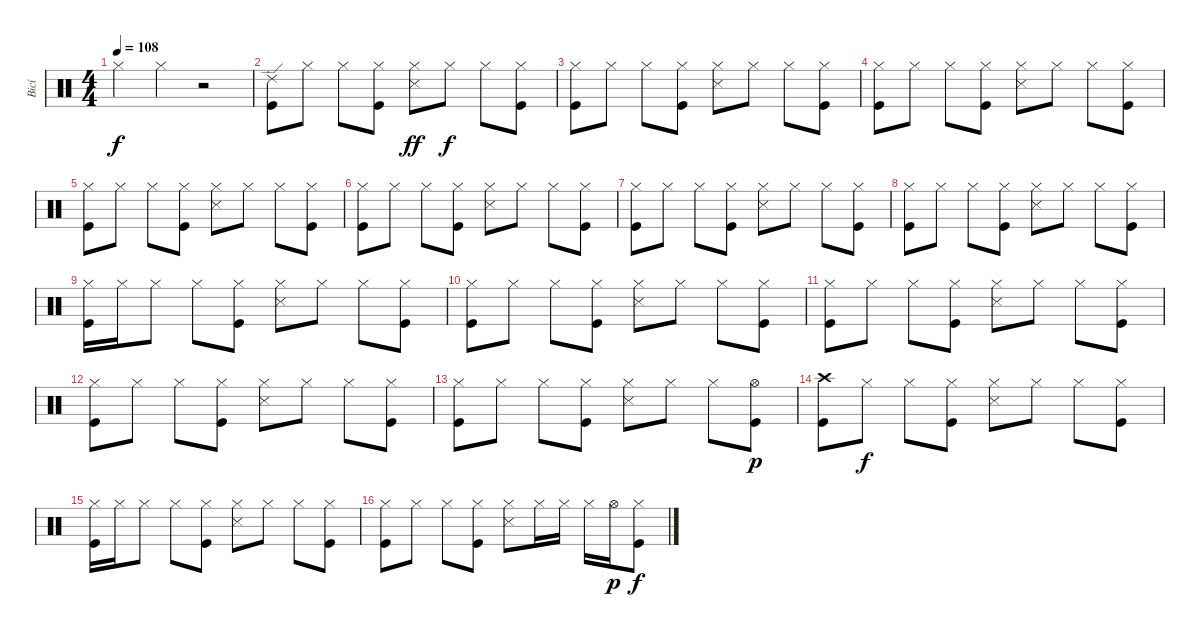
\track ("Bicí" "Bicí") {instrument percussion}
\staff {score}
\articulation defaults
\ts (4 4)
\tempo 108
\clef neutral
\ks c "Hi-Hat (closed)".4{dy f} "Hi-Hat (closed)".4
r.2 |
("Ride (edge) 2" "Kick (hit)").8 "Hi-Hat (closed)".8 "Hi-Hat (closed)".8 ("Hi-Hat (closed)" "Kick (hit)").8 ("Hi-Hat (closed)" "Snare (side stick) 3").8{dy ff} "Hi-Hat (closed)".8{dy f} "Hi-Hat (closed)".8 ("Hi-Hat (closed)" "Kick (hit)").8 |
("Hi-Hat (closed)" "Kick (hit)").8 "Hi-Hat (closed)".8 "Hi-Hat (closed)".8 ("Hi-Hat (closed)" "Kick (hit)").8 ("Hi-Hat (closed)" "Snare (side stick) 3").8 "Hi-Hat (closed)".8 "Hi-Hat (closed)".8 ("Hi-Hat (closed)" "Kick (hit)").8 |
("Hi-Hat (closed)" "Kick (hit)").8 "Hi-Hat (closed)".8 "Hi-Hat (closed)".8 ("Hi-Hat (closed)" "Kick (hit)").8 ("Hi-Hat (closed)" "Snare (side stick) 3").8 "Hi-Hat (closed)".8 "Hi-Hat (closed)".8 ("Hi-Hat (closed)" "Kick (hit)").8 |
("Hi-Hat (closed)" "Kick (hit)").8 "Hi-Hat (closed)".8 "Hi-Hat (closed)".8 ("Hi-Hat (closed)" "Kick (hit)").8 ("Hi-Hat (closed)" "Snare (side stick) 3").8 "Hi-Hat (closed)".8 "Hi-Hat (closed)".8 ("Hi-Hat (closed)" "Kick (hit)").8 |
("Hi-Hat (closed)" "Kick (hit)").8 "Hi-Hat (closed)".8 "Hi-Hat (closed)".8 ("Hi-Hat (closed)" "Kick (hit)").8 ("Hi-Hat (closed)" "Snare (side stick) 3").8 "Hi-Hat (closed)".8 "Hi-Hat (closed)".8 ("Hi-Hat (closed)" "Kick (hit)").8 |
("Hi-Hat (closed)" "Kick (hit)").8 "Hi-Hat (closed)".8 "Hi-Hat (closed)".8 ("Hi-Hat (closed)" "Kick (hit)").8 ("Hi-Hat (closed)" "Snare (side stick) 3").8 "Hi-Hat (closed)".8 "Hi-Hat (closed)".8 ("Hi-Hat (closed)" "Kick (hit)").8 |
("Hi-Hat (closed)" "Kick (hit)").8 "Hi-Hat (closed)".8 "Hi-Hat (closed)".8 ("Hi-Hat (closed)" "Kick (hit)").8 ("Hi-Hat (closed)" "Snare (side stick) 3").8 "Hi-Hat (closed)".8 "Hi-Hat (closed)".8 ("Hi-Hat (closed)" "Kick (hit)").8 |
("Hi-Hat (closed)" "Kick (hit)").16 "Hi-Hat (closed)".16 "Hi-Hat (closed)".8 "Hi-Hat (closed)".8 ("Hi-Hat (closed)" "Kick (hit)").8 ("Hi-Hat (closed)" "Snare (side stick) 3").8 "Hi-Hat (closed)".8 "Hi-Hat (closed)".8 ("Hi-Hat (closed)" "Kick (hit)").8 |
("Hi-Hat (closed)" "Kick (hit)").8 "Hi-Hat (closed)".8 "Hi-Hat (closed)".8 ("Hi-Hat (closed)" "Kick (hit)").8 ("Hi-Hat (closed)" "Snare (side stick) 3").8 "Hi-Hat (closed)".8 "Hi-Hat (closed)".8 ("Hi-Hat (closed)" "Kick (hit)").8 |
("Hi-Hat (closed)" "Kick (hit)").8 "Hi-Hat (closed)".8 "Hi-Hat (closed)".8 ("Hi-Hat (closed)" "Kick (hit)").8 ("Hi-Hat (closed)" "Snare (side stick) 3").8 "Hi-Hat (closed)".8 "Hi-Hat (closed)".8 ("Hi-Hat (closed)" "Kick (hit)").8 |
("Hi-Hat (closed)" "Kick (hit)").8 "Hi-Hat (closed)".8 "Hi-Hat (closed)".8 ("Hi-Hat (closed)" "Kick (hit)").8 ("Hi-Hat (closed)" "Snare (side stick) 3").8 "Hi-Hat (closed)".8 "Hi-Hat (closed)".8 ("Hi-Hat (closed)" "Kick (hit)").8 |
("Hi-Hat (closed)" "Kick (hit)").8 "Hi-Hat (closed)".8 "Hi-Hat (closed)".8 ("Hi-Hat (closed)" "Kick (hit)").8 ("Hi-Hat (closed)" "Snare (side stick) 3").8 "Hi-Hat (closed)".8 "Hi-Hat (closed)".8 ("Hi-Hat (open)" "Kick (hit)").8{dy p} |
("Crash high (hit)" "Kick (hit)").8 "Hi-Hat (closed)".8{dy f} "Hi-Hat (closed)".8 ("Hi-Hat (closed)" "Kick (hit)").8 ("Hi-Hat (closed)" "Snare (side stick) 3").8 "Hi-Hat (closed)".8 "Hi-Hat (closed)".8 ("Hi-Hat (closed)" "Kick (hit)").8 |
("Hi-Hat (closed)" "Kick (hit)").16 "Hi-Hat (closed)".16 "Hi-Hat (closed)".8 "Hi-Hat (closed)".8 ("Hi-Hat (closed)" "Kick (hit)").8 ("Hi-Hat (closed)" "Snare (side stick) 3").8 "Hi-Hat (closed)".8 "Hi-Hat (closed)".8 ("Hi-Hat (closed)" "Kick (hit)").8 |
("Hi-Hat (closed)" "Kick (hit)").8 "Hi-Hat (closed)".8 "Hi-Hat (closed)".8 ("Hi-Hat (closed)" "Kick (hit)").8 ("Hi-Hat (closed)" "Snare (side stick) 3").8 "Hi-Hat (closed)".16 "Hi-Hat (closed)".16 "Hi-Hat (closed)".16 "Hi-Hat (open)".16{dy p} ("Hi-Hat (closed)" "Kick (hit)").8{dy f}
